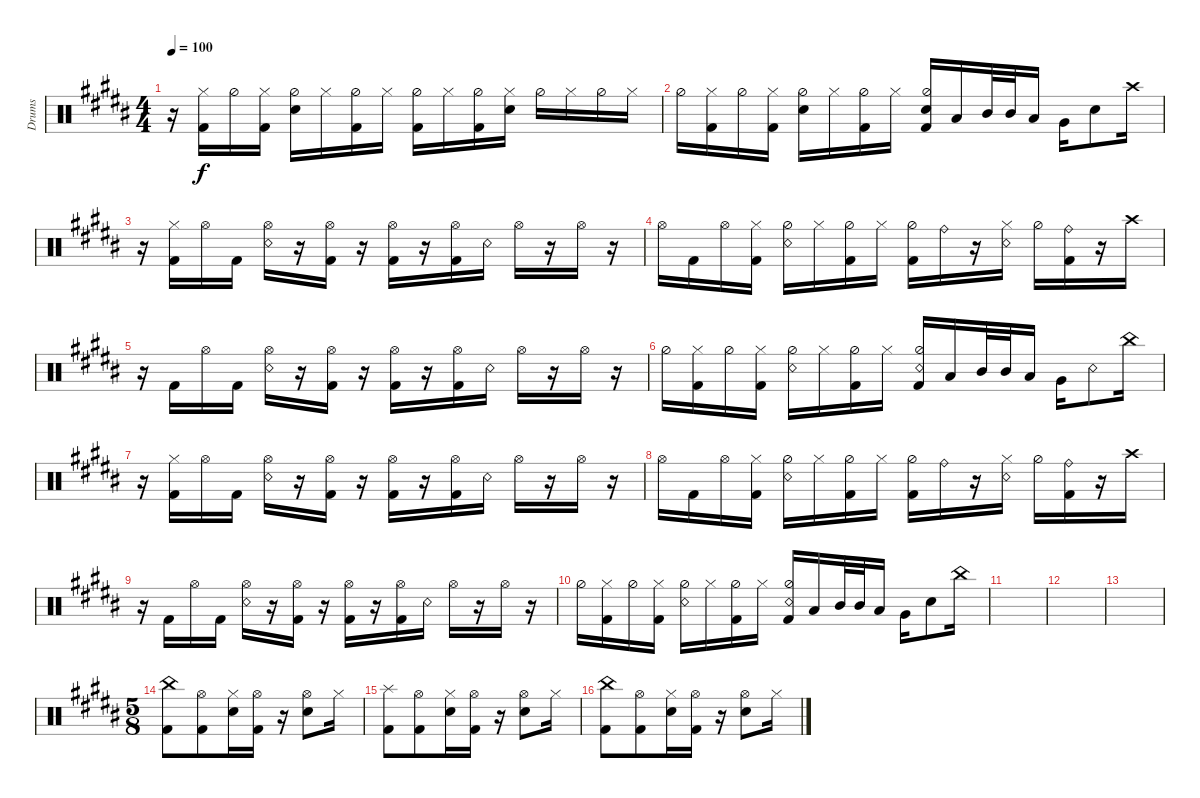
\bracketExtendMode groupsimilarinstruments
\otherSystemsTrackNameOrientation horizontal
\track ("Drumkit" "Drums") {instrument percussion}
\staff {score}
\articulation defaults
\ts (4 4)
\tempo 100
\clef neutral
\ks b
r.16{dy f} ("Kick (hit) 2"{acc bb} "Hi-Hat (closed)"{acc bb}).16 "Hi-Hat (half)"{acc bb}.16 ("Hi-Hat (closed)"{acc bb} "Kick (hit) 2"{acc bb}).16 ("Hi-Hat (half)"{acc bb} "Snare (hit) 2"{acc bb}).16 "Hi-Hat (closed)"{acc bb}.16 ("Hi-Hat (half)"{acc bb} "Kick (hit) 2"{acc bb}).16 "Hi-Hat (closed)"{acc bb}.16 ("Hi-Hat (half)"{acc bb} "Kick (hit) 2"{acc bb}).16 "Hi-Hat (closed)"{acc bb}.16 ("Hi-Hat (half)"{acc bb} "Kick (hit) 2"{acc bb}).16 ("Hi-Hat (closed)"{acc bb} "Snare (hit) 2"{acc bb}).16 "Hi-Hat (half)"{acc bb}.16 "Hi-Hat (closed)"{acc bb}.16 "Hi-Hat (half)"{acc bb}.16 "Hi-Hat (closed)"{acc bb}.16 |
"Hi-Hat (half)"{acc bb}.16 ("Kick (hit) 2"{acc bb} "Hi-Hat (closed)"{acc bb}).16 "Hi-Hat (half)"{acc bb}.16 ("Hi-Hat (closed)"{acc bb} "Kick (hit) 2"{acc bb}).16 ("Hi-Hat (half)"{acc bb} "Snare (hit) 2"{acc bb}).16 "Hi-Hat (closed)"{acc bb}.16 ("Hi-Hat (half)"{acc bb} "Kick (hit) 2"{acc bb}).16 "Hi-Hat (closed)"{acc bb}.16 ("Hi-Hat (half)"{acc bb} "Kick (hit) 2"{acc bb} "Snare (hit) 2"{acc bb}).16 "Low Tom (hit)"{acc bb}.16 "Mid Tom (hit)"{acc bb}.32 "Mid Tom (hit)"{acc bb}.32 "Low Tom (hit)"{acc bb}.16 "Very Low Tom (hit)"{acc bb}.16 "Snare (hit) 2"{acc bb}.8 "Crash high (hit)"{acc bb}.16 |
r.16 ("Kick (hit) 2"{acc bb} "Hi-Hat (closed)"{acc bb}).16 "Hi-Hat (open)"{acc bb}.16 "Kick (hit) 2"{acc bb}.16 ("Hi-Hat (open)"{acc bb} "Snare (rim shot)"{acc bb}).16 r.16 ("Hi-Hat (open)"{acc bb} "Kick (hit) 2"{acc bb}).16 r.16 ("Hi-Hat (open)"{acc bb} "Kick (hit) 2"{acc bb}).16 r.16 ("Hi-Hat (open)"{acc bb} "Kick (hit) 2"{acc bb}).16 "Snare (rim shot)"{acc bb}.16 "Hi-Hat (open)"{acc bb}.16 r.16 "Hi-Hat (open)"{acc bb}.16 r.16 |
"Hi-Hat (open)"{acc bb}.16 "Kick (hit) 2"{acc bb}.16 "Hi-Hat (open)"{acc bb}.16 ("Hi-Hat (closed)"{acc bb} "Kick (hit) 2"{acc bb}).16 ("Hi-Hat (half)"{acc bb} "Snare (rim shot)"{acc bb}).16 "Hi-Hat (closed)"{acc bb}.16 ("Hi-Hat (half)"{acc bb} "Kick (hit) 2"{acc bb}).16 "Hi-Hat (closed)"{acc bb}.16 ("Hi-Hat (half)"{acc bb} "Kick (hit) 2"{acc bb}).16 "Ride (bell)"{acc bb}.16 r.16 ("Hi-Hat (closed)"{acc bb} "Snare (rim shot)"{acc bb}).16 "Hi-Hat (half)"{acc bb}.16 ("Kick (hit) 2"{acc bb} "Ride (bell)"{acc bb}).16 r.16 "Crash high (hit)"{acc bb}.16 |
r.16 "Kick (hit) 2"{acc bb}.16 "Hi-Hat (open)"{acc bb}.16 "Kick (hit) 2"{acc bb}.16 ("Hi-Hat (open)"{acc bb} "Snare (rim shot)"{acc bb}).16 r.16 ("Hi-Hat (open)"{acc bb} "Kick (hit) 2"{acc bb}).16 r.16 ("Hi-Hat (open)"{acc bb} "Kick (hit) 2"{acc bb}).16 r.16 ("Hi-Hat (open)"{acc bb} "Kick (hit) 2"{acc bb}).16 "Snare (rim shot)"{acc bb}.16 "Hi-Hat (open)"{acc bb}.16 r.16 "Hi-Hat (open)"{acc bb}.16 r.16 |
"Hi-Hat (half)"{acc bb}.16 ("Kick (hit) 2"{acc bb} "Hi-Hat (closed)"{acc bb}).16 "Hi-Hat (half)"{acc bb}.16 ("Hi-Hat (closed)"{acc bb} "Kick (hit) 2"{acc bb}).16 ("Hi-Hat (half)"{acc bb} "Snare (rim shot)"{acc bb}).16 "Hi-Hat (closed)"{acc bb}.16 ("Hi-Hat (half)"{acc bb} "Kick (hit) 2"{acc bb}).16 "Hi-Hat (closed)"{acc bb}.16 ("Hi-Hat (half)"{acc bb} "Kick (hit) 2"{acc bb} "Snare (rim shot)"{acc bb}).16 "Low Tom (hit)"{acc bb}.16 "Mid Tom (hit)"{acc bb}.32 "Mid Tom (hit)"{acc bb}.32 "Low Tom (hit)"{acc bb}.16 "Very Low Tom (hit)"{acc bb}.16 "Snare (rim shot)"{acc bb}.8 "China (hit)"{acc bb}.16 |
r.16 ("Kick (hit) 2"{acc bb} "Hi-Hat (closed)"{acc bb}).16 "Hi-Hat (open)"{acc bb}.16 "Kick (hit) 2"{acc bb}.16 ("Hi-Hat (open)"{acc bb} "Snare (rim shot)"{acc bb}).16 r.16 ("Hi-Hat (open)"{acc bb} "Kick (hit) 2"{acc bb}).16 r.16 ("Hi-Hat (open)"{acc bb} "Kick (hit) 2"{acc bb}).16 r.16 ("Hi-Hat (open)"{acc bb} "Kick (hit) 2"{acc bb}).16 "Snare (rim shot)"{acc bb}.16 "Hi-Hat (open)"{acc bb}.16 r.16 "Hi-Hat (open)"{acc bb}.16 r.16 |
"Hi-Hat (open)"{acc bb}.16 "Kick (hit) 2"{acc bb}.16 "Hi-Hat (open)"{acc bb}.16 ("Hi-Hat (closed)"{acc bb} "Kick (hit) 2"{acc bb}).16 ("Hi-Hat (half)"{acc bb} "Snare (rim shot)"{acc bb}).16 "Hi-Hat (closed)"{acc bb}.16 ("Hi-Hat (half)"{acc bb} "Kick (hit) 2"{acc bb}).16 "Hi-Hat (closed)"{acc bb}.16 ("Hi-Hat (half)"{acc bb} "Kick (hit) 2"{acc bb}).16 "Ride (bell)"{acc bb}.16 r.16 ("Hi-Hat (closed)"{acc bb} "Snare (rim shot)"{acc bb}).16 "Hi-Hat (half)"{acc bb}.16 ("Kick (hit) 2"{acc bb} "Ride (bell)"{acc bb}).16 r.16 "Crash high (hit)"{acc bb}.16 |
r.16 "Kick (hit) 2"{acc bb}.16 "Hi-Hat (open)"{acc bb}.16 "Kick (hit) 2"{acc bb}.16 ("Hi-Hat (open)"{acc bb} "Snare (rim shot)"{acc bb}).16 r.16 ("Hi-Hat (open)"{acc bb} "Kick (hit) 2"{acc bb}).16 r.16 ("Hi-Hat (open)"{acc bb} "Kick (hit) 2"{acc bb}).16 r.16 ("Hi-Hat (open)"{acc bb} "Kick (hit) 2"{acc bb}).16 "Snare (rim shot)"{acc bb}.16 "Hi-Hat (open)"{acc bb}.16 r.16 "Hi-Hat (open)"{acc bb}.16 r.16 |
"Hi-Hat (half)"{acc bb}.16 ("Kick (hit) 2"{acc bb} "Hi-Hat (closed)"{acc bb}).16 "Hi-Hat (half)"{acc bb}.16 ("Hi-Hat (closed)"{acc bb} "Kick (hit) 2"{acc bb}).16 ("Hi-Hat (half)"{acc bb} "Snare (rim shot)"{acc bb}).16 "Hi-Hat (closed)"{acc bb}.16 ("Hi-Hat (half)"{acc bb} "Kick (hit) 2"{acc bb}).16 "Hi-Hat (closed)"{acc bb}.16 ("Hi-Hat (half)"{acc bb} "Kick (hit) 2"{acc bb} "Snare (rim shot)"{acc bb}).16 "Low Tom (hit)"{acc bb}.16 "Mid Tom (hit)"{acc bb}.32 "Mid Tom (hit)"{acc bb}.32 "Low Tom (hit)"{acc bb}.16 "Very Low Tom (hit)"{acc bb}.16 "Snare (hit) 2"{acc bb}.8 "China (hit)"{acc bb}.16 |
|
|
|
\ts (5 8)
("Kick (hit) 2"{acc bb} "China (hit)"{acc bb}).8 ("Hi-Hat (open)"{acc bb} "Kick (hit) 2"{acc bb}).8 ("Hi-Hat (closed)"{acc bb} "Snare (hit) 2"{acc bb}).16 ("Hi-Hat (open)"{acc bb} "Kick (hit) 2"{acc bb}).16 r.16 ("Hi-Hat (open)"{acc bb} "Snare (hit) 2"{acc bb}).8 "Hi-Hat (closed)"{acc bb}.16 |
("Kick (hit) 2"{acc bb} "Splash (hit)"{acc bb}).8 ("Hi-Hat (open)"{acc bb} "Kick (hit) 2"{acc bb}).8 ("Hi-Hat (closed)"{acc bb} "Snare (hit) 2"{acc bb}).16 ("Hi-Hat (open)"{acc bb} "Kick (hit) 2"{acc bb}).16 r.16 ("Hi-Hat (open)"{acc bb} "Snare (hit) 2"{acc bb}).8 "Hi-Hat (closed)"{acc bb}.16 |
("Kick (hit) 2"{acc bb} "China (hit)"{acc bb}).8 ("Hi-Hat (open)"{acc bb} "Kick (hit) 2"{acc bb}).8 ("Hi-Hat (closed)"{acc bb} "Snare (hit) 2"{acc bb}).16 ("Hi-Hat (open)"{acc bb} "Kick (hit) 2"{acc bb}).16 r.16 ("Hi-Hat (open)"{acc bb} "Snare (hit) 2"{acc bb}).8 "Hi-Hat (closed)"{acc bb}.16
